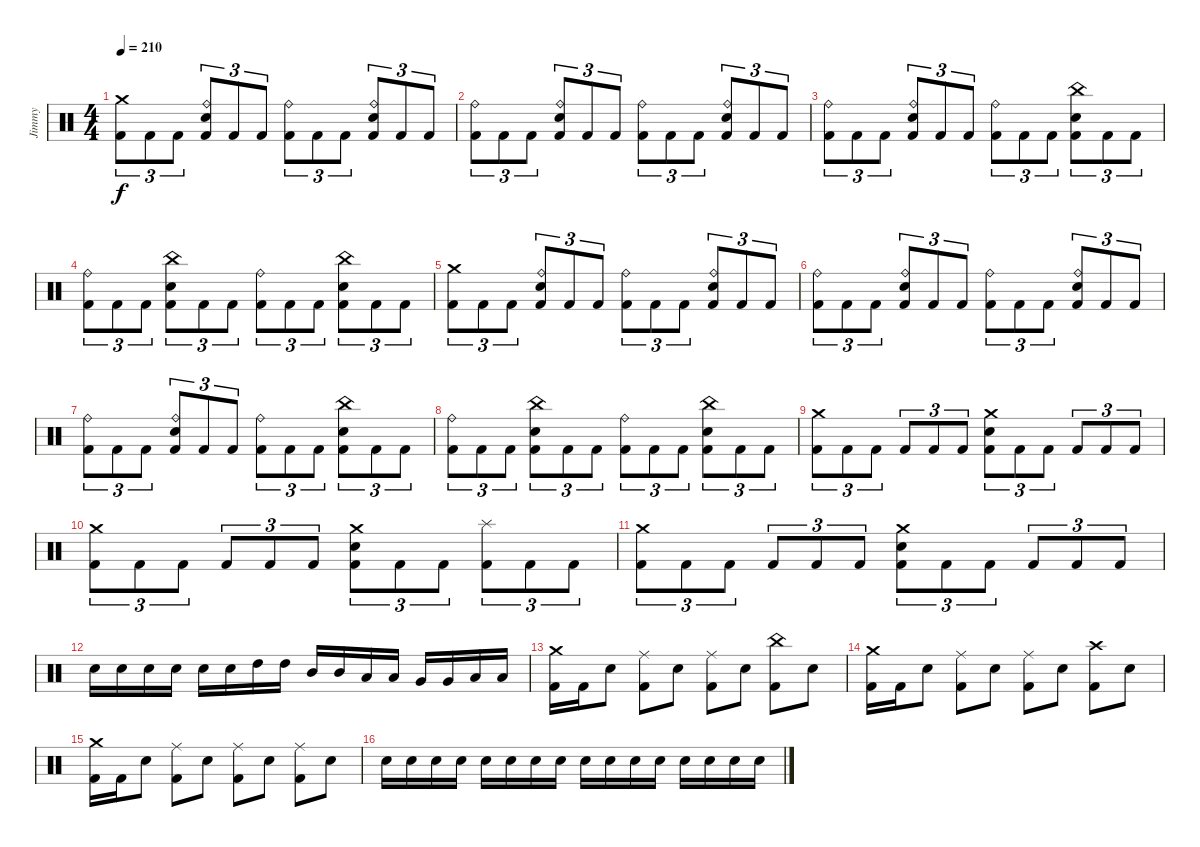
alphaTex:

\track ("Jimmy" "Jimmy") {instrument percussion}
\staff {score}
\articulation defaults
\ts (4 4)
\tempo 210
\clef neutral
\ks c
("Crash medium (hit)" "Kick (hit) 2").8{tu (3 2) dy f} "Kick (hit) 2".8{tu (3 2)} "Kick (hit) 2".8{tu (3 2)} ("Ride (bell)" "Electric Snare (hit)" "Kick (hit) 2").8{tu (3 2)} "Kick (hit) 2".8{tu (3 2)} "Kick (hit) 2".8{tu (3 2)} ("Ride (bell)" "Kick (hit) 2").8{tu (3 2)} "Kick (hit) 2".8{tu (3 2)} "Kick (hit) 2".8{tu (3 2)} ("Ride (bell)" "Electric Snare (hit)" "Kick (hit) 2").8{tu (3 2)} "Kick (hit) 2".8{tu (3 2)} "Kick (hit) 2".8{tu (3 2)} |
("Ride (bell)" "Kick (hit) 2").8{tu (3 2)} "Kick (hit) 2".8{tu (3 2)} "Kick (hit) 2".8{tu (3 2)} ("Ride (bell)" "Electric Snare (hit)" "Kick (hit) 2").8{tu (3 2)} "Kick (hit) 2".8{tu (3 2)} "Kick (hit) 2".8{tu (3 2)} ("Ride (bell)" "Kick (hit) 2").8{tu (3 2)} "Kick (hit) 2".8{tu (3 2)} "Kick (hit) 2".8{tu (3 2)} ("Ride (bell)" "Electric Snare (hit)" "Kick (hit) 2").8{tu (3 2)} "Kick (hit) 2".8{tu (3 2)} "Kick (hit) 2".8{tu (3 2)} |
("Ride (bell)" "Kick (hit) 2").8{tu (3 2)} "Kick (hit) 2".8{tu (3 2)} "Kick (hit) 2".8{tu (3 2)} ("Ride (bell)" "Electric Snare (hit)" "Kick (hit) 2").8{tu (3 2)} "Kick (hit) 2".8{tu (3 2)} "Kick (hit) 2".8{tu (3 2)} ("Ride (bell)" "Kick (hit) 2").8{tu (3 2)} "Kick (hit) 2".8{tu (3 2)} "Kick (hit) 2".8{tu (3 2)} ("China (hit)" "Electric Snare (hit)" "Kick (hit) 2").8{tu (3 2)} "Kick (hit) 2".8{tu (3 2)} "Kick (hit) 2".8{tu (3 2)} |
("Ride (bell)" "Kick (hit) 2").8{tu (3 2)} "Kick (hit) 2".8{tu (3 2)} "Kick (hit) 2".8{tu (3 2)} ("China (hit)" "Electric Snare (hit)" "Kick (hit) 2").8{tu (3 2)} "Kick (hit) 2".8{tu (3 2)} "Kick (hit) 2".8{tu (3 2)} ("Ride (bell)" "Kick (hit) 2").8{tu (3 2)} "Kick (hit) 2".8{tu (3 2)} "Kick (hit) 2".8{tu (3 2)} ("China (hit)" "Electric Snare (hit)" "Kick (hit) 2").8{tu (3 2)} "Kick (hit) 2".8{tu (3 2)} "Kick (hit) 2".8{tu (3 2)} |
("Crash medium (hit)" "Kick (hit) 2").8{tu (3 2)} "Kick (hit) 2".8{tu (3 2)} "Kick (hit) 2".8{tu (3 2)} ("Ride (bell)" "Electric Snare (hit)" "Kick (hit) 2").8{tu (3 2)} "Kick (hit) 2".8{tu (3 2)} "Kick (hit) 2".8{tu (3 2)} ("Ride (bell)" "Kick (hit) 2").8{tu (3 2)} "Kick (hit) 2".8{tu (3 2)} "Kick (hit) 2".8{tu (3 2)} ("Ride (bell)" "Electric Snare (hit)" "Kick (hit) 2").8{tu (3 2)} "Kick (hit) 2".8{tu (3 2)} "Kick (hit) 2".8{tu (3 2)} |
("Ride (bell)" "Kick (hit) 2").8{tu (3 2)} "Kick (hit) 2".8{tu (3 2)} "Kick (hit) 2".8{tu (3 2)} ("Ride (bell)" "Electric Snare (hit)" "Kick (hit) 2").8{tu (3 2)} "Kick (hit) 2".8{tu (3 2)} "Kick (hit) 2".8{tu (3 2)} ("Ride (bell)" "Kick (hit) 2").8{tu (3 2)} "Kick (hit) 2".8{tu (3 2)} "Kick (hit) 2".8{tu (3 2)} ("Ride (bell)" "Electric Snare (hit)" "Kick (hit) 2").8{tu (3 2)} "Kick (hit) 2".8{tu (3 2)} "Kick (hit) 2".8{tu (3 2)} |
("Ride (bell)" "Kick (hit) 2").8{tu (3 2)} "Kick (hit) 2".8{tu (3 2)} "Kick (hit) 2".8{tu (3 2)} ("Ride (bell)" "Electric Snare (hit)" "Kick (hit) 2").8{tu (3 2)} "Kick (hit) 2".8{tu (3 2)} "Kick (hit) 2".8{tu (3 2)} ("Ride (bell)" "Kick (hit) 2").8{tu (3 2)} "Kick (hit) 2".8{tu (3 2)} "Kick (hit) 2".8{tu (3 2)} ("China (hit)" "Electric Snare (hit)" "Kick (hit) 2").8{tu (3 2)} "Kick (hit) 2".8{tu (3 2)} "Kick (hit) 2".8{tu (3 2)} |
("Ride (bell)" "Kick (hit) 2").8{tu (3 2)} "Kick (hit) 2".8{tu (3 2)} "Kick (hit) 2".8{tu (3 2)} ("China (hit)" "Electric Snare (hit)" "Kick (hit) 2").8{tu (3 2)} "Kick (hit) 2".8{tu (3 2)} "Kick (hit) 2".8{tu (3 2)} ("Ride (bell)" "Kick (hit) 2").8{tu (3 2)} "Kick (hit) 2".8{tu (3 2)} "Kick (hit) 2".8{tu (3 2)} ("China (hit)" "Electric Snare (hit)" "Kick (hit) 2").8{tu (3 2)} "Kick (hit) 2".8{tu (3 2)} "Kick (hit) 2".8{tu (3 2)} |
("Crash medium (hit)" "Kick (hit) 2").8{tu (3 2)} "Kick (hit) 2".8{tu (3 2)} "Kick (hit) 2".8{tu (3 2)} "Kick (hit) 2".8{tu (3 2)} "Kick (hit) 2".8{tu (3 2)} "Kick (hit) 2".8{tu (3 2)} ("Crash medium (hit)" "Electric Snare (hit)" "Kick (hit) 2").8{tu (3 2)} "Kick (hit) 2".8{tu (3 2)} "Kick (hit) 2".8{tu (3 2)} "Kick (hit) 2".8{tu (3 2)} "Kick (hit) 2".8{tu (3 2)} "Kick (hit) 2".8{tu (3 2)} |
("Crash medium (hit)" "Kick (hit) 2").8{tu (3 2)} "Kick (hit) 2".8{tu (3 2)} "Kick (hit) 2".8{tu (3 2)} "Kick (hit) 2".8{tu (3 2)} "Kick (hit) 2".8{tu (3 2)} "Kick (hit) 2".8{tu (3 2)} ("Crash medium (hit)" "Electric Snare (hit)" "Kick (hit) 2").8{tu (3 2)} "Kick (hit) 2".8{tu (3 2)} "Kick (hit) 2".8{tu (3 2)} ("Splash (hit)" "Kick (hit) 2").8{tu (3 2)} "Kick (hit) 2".8{tu (3 2)} "Kick (hit) 2".8{tu (3 2)} |
("Crash medium (hit)" "Kick (hit) 2").8{tu (3 2)} "Kick (hit) 2".8{tu (3 2)} "Kick (hit) 2".8{tu (3 2)} "Kick (hit) 2".8{tu (3 2)} "Kick (hit) 2".8{tu (3 2)} "Kick (hit) 2".8{tu (3 2)} ("Crash medium (hit)" "Electric Snare (hit)" "Kick (hit) 2").8{tu (3 2)} "Kick (hit) 2".8{tu (3 2)} "Kick (hit) 2".8{tu (3 2)} "Kick (hit) 2".8{tu (3 2)} "Kick (hit) 2".8{tu (3 2)} "Kick (hit) 2".8{tu (3 2)} |
"Electric Snare (hit)".16 "Electric Snare (hit)".16 "Electric Snare (hit)".16 "Electric Snare (hit)".16 "Electric Snare (hit)".16 "Electric Snare (hit)".16 "High Tom (hit)".16 "High Tom (hit)".16 "Mid Tom (hit)".16 "Mid Tom (hit)".16 "Low Tom (hit)".16 "Low Tom (hit)".16 "Very Low Tom (hit)".16 "Very Low Tom (hit)".16 "Low Floor Tom (hit)".16 "Low Floor Tom (hit)".16 |
("Crash medium (hit)" "Kick (hit) 2").16 "Kick (hit) 2".16 "Electric Snare (hit)".8 ("Ride (middle)" "Kick (hit) 2").8 "Electric Snare (hit)".8 ("Ride (middle)" "Kick (hit) 2").8 "Electric Snare (hit)".8 ("China (hit)" "Kick (hit) 2").8 "Electric Snare (hit)".8 |
("Crash medium (hit)" "Kick (hit) 2").16 "Kick (hit) 2".16 "Electric Snare (hit)".8 ("Ride (middle)" "Kick (hit) 2").8 "Electric Snare (hit)".8 ("Ride (middle)" "Kick (hit) 2").8 "Electric Snare (hit)".8 ("Crash high (hit)" "Kick (hit) 2").8 "Electric Snare (hit)".8 |
("Crash medium (hit)" "Kick (hit) 2").16 "Kick (hit) 2".16 "Electric Snare (hit)".8 ("Ride (middle)" "Kick (hit) 2").8 "Electric Snare (hit)".8 ("Ride (middle)" "Kick (hit) 2").8 "Electric Snare (hit)".8 ("Ride (middle)" "Kick (hit) 2").8 "Electric Snare (hit)".8 |
"Electric Snare (hit)".16 "Electric Snare (hit)".16 "Electric Snare (hit)".16 "Electric Snare (hit)".16 "Electric Snare (hit)".16 "Electric Snare (hit)".16 "Electric Snare (hit)".16 "Electric Snare (hit)".16 "Electric Snare (hit)".16 "Electric Snare (hit)".16 "Electric Snare (hit)".16 "Electric Snare (hit)".16 "Electric Snare (hit)".16 "Electric Snare (hit)".16 "Electric Snare (hit)".16 "Electric Snare (hit)".16
